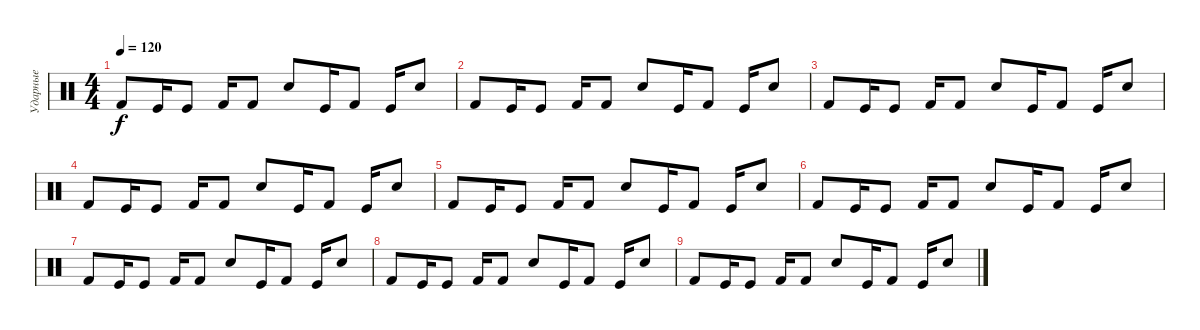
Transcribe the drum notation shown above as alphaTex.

\track ("Ударные" "Ударные") {instrument percussion}
\staff {score}
\articulation defaults
\ts (4 4)
\tempo 120
\clef neutral
\ks c "Kick (hit) 2".8{dy f} "Kick (hit)".16 "Kick (hit)".8 "Kick (hit) 2".16 "Kick (hit) 2".8 "Hand Clap (hit)".8 "Kick (hit)".16 "Kick (hit) 2".8 "Kick (hit)".16 "Snare (hit) 2".8
|
"Kick (hit) 2".8 "Kick (hit)".16 "Kick (hit)".8 "Kick (hit) 2".16 "Kick (hit) 2".8 "Hand Clap (hit)".8 "Kick (hit)".16 "Kick (hit) 2".8 "Kick (hit)".16 "Snare (hit) 2".8 |
"Kick (hit) 2".8 "Kick (hit)".16 "Kick (hit)".8 "Kick (hit) 2".16 "Kick (hit) 2".8 "Hand Clap (hit)".8 "Kick (hit)".16 "Kick (hit) 2".8 "Kick (hit)".16 "Snare (hit) 2".8 |
"Kick (hit) 2".8 "Kick (hit)".16 "Kick (hit)".8 "Kick (hit) 2".16 "Kick (hit) 2".8 "Hand Clap (hit)".8 "Kick (hit)".16 "Kick (hit) 2".8 "Kick (hit)".16 "Snare (hit) 2".8 |
"Kick (hit) 2".8 "Kick (hit)".16 "Kick (hit)".8 "Kick (hit) 2".16 "Kick (hit) 2".8 "Hand Clap (hit)".8 "Kick (hit)".16 "Kick (hit) 2".8 "Kick (hit)".16 "Snare (hit) 2".8 |
"Kick (hit) 2".8 "Kick (hit)".16 "Kick (hit)".8 "Kick (hit) 2".16 "Kick (hit) 2".8 "Hand Clap (hit)".8 "Kick (hit)".16 "Kick (hit) 2".8 "Kick (hit)".16 "Snare (hit) 2".8 |
"Kick (hit) 2".8 "Kick (hit)".16 "Kick (hit)".8 "Kick (hit) 2".16 "Kick (hit) 2".8 "Hand Clap (hit)".8 "Kick (hit)".16 "Kick (hit) 2".8 "Kick (hit)".16 "Snare (hit) 2".8 |
"Kick (hit) 2".8 "Kick (hit)".16 "Kick (hit)".8 "Kick (hit) 2".16 "Kick (hit) 2".8 "Hand Clap (hit)".8 "Kick (hit)".16 "Kick (hit) 2".8 "Kick (hit)".16 "Snare (hit) 2".8 |
"Kick (hit) 2".8 "Kick (hit)".16 "Kick (hit)".8 "Kick (hit) 2".16 "Kick (hit) 2".8 "Hand Clap (hit)".8 "Kick (hit)".16 "Kick (hit) 2".8 "Kick (hit)".16 "Snare (hit) 2".8
